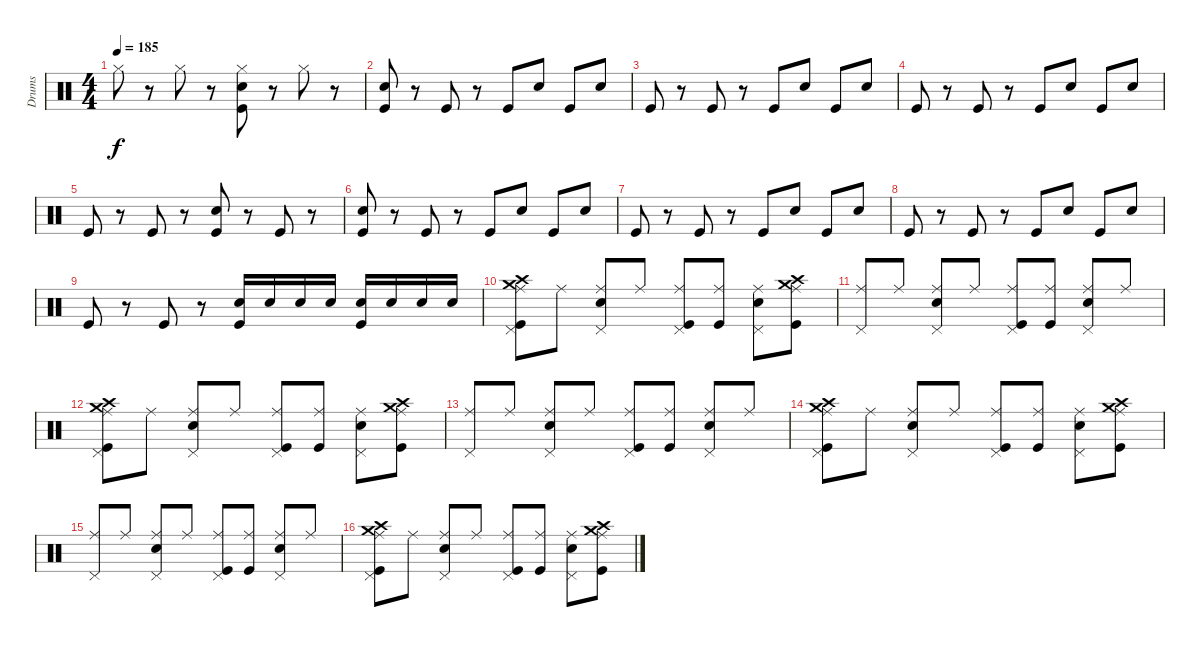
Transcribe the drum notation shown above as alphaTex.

\track ("Drums" "Drums") {instrument percussion}
\staff {score}
\articulation defaults
\ts (4 4)
\tempo 185
\clef neutral
\ks c "Hi-Hat (closed)".8{dy f}
r.8 "Hi-Hat (closed)".8 r.8 ("Kick (hit)" "Hi-Hat (closed)" "Electric Snare (hit)").8 r.8 "Hi-Hat (closed)".8 r.8 |
("Kick (hit)" "Electric Snare (hit)").8 r.8 "Kick (hit)".8 r.8 "Kick (hit)".8 "Electric Snare (hit)".8 "Kick (hit)".8 "Electric Snare (hit)".8 |
"Kick (hit)".8 r.8 "Kick (hit)".8 r.8 "Kick (hit)".8 "Electric Snare (hit)".8 "Kick (hit)".8 "Electric Snare (hit)".8 |
"Kick (hit)".8 r.8 "Kick (hit)".8 r.8 "Kick (hit)".8 "Electric Snare (hit)".8 "Kick (hit)".8 "Electric Snare (hit)".8 |
"Kick (hit)".8 r.8 "Kick (hit)".8 r.8 ("Electric Snare (hit)" "Kick (hit)").8 r.8 "Kick (hit)".8 r.8 |
("Electric Snare (hit)" "Kick (hit)").8 r.8 "Kick (hit)".8 r.8 "Kick (hit)".8 "Electric Snare (hit)".8 "Kick (hit)".8 "Electric Snare (hit)".8 |
"Kick (hit)".8 r.8 "Kick (hit)".8 r.8 "Kick (hit)".8 "Electric Snare (hit)".8 "Kick (hit)".8 "Electric Snare (hit)".8 |
"Kick (hit)".8 r.8 "Kick (hit)".8 r.8 "Kick (hit)".8 "Electric Snare (hit)".8 "Kick (hit)".8 "Electric Snare (hit)".8 |
"Kick (hit)".8 r.8 "Kick (hit)".8 r.8 ("Electric Snare (hit)" "Kick (hit)").16 "Electric Snare (hit)".16 "Electric Snare (hit)".16 "Electric Snare (hit)".16 ("Kick (hit)" "Electric Snare (hit)").16 "Electric Snare (hit)".16 "Electric Snare (hit)".16 "Electric Snare (hit)".16 |
("Ride (middle)" "Pedal Hi-Hat (hit)" "Crash medium (hit)" "Crash high (hit)" "Kick (hit)").8 "Ride (middle)".8 ("Ride (middle)" "Pedal Hi-Hat (hit)" "Electric Snare (hit)").8 "Ride (middle)".8 ("Ride (middle)" "Pedal Hi-Hat (hit)" "Kick (hit)").8 ("Kick (hit)" "Ride (middle)").8 ("Ride (middle)" "Pedal Hi-Hat (hit)" "Electric Snare (hit)").8 ("Kick (hit)" "Crash high (hit)" "Crash medium (hit)" "Ride (middle)").8 |
("Ride (middle)" "Pedal Hi-Hat (hit)").8 "Ride (middle)".8 ("Ride (middle)" "Pedal Hi-Hat (hit)" "Electric Snare (hit)").8 "Ride (middle)".8 ("Kick (hit)" "Ride (middle)" "Pedal Hi-Hat (hit)").8 ("Kick (hit)" "Ride (middle)").8 ("Ride (middle)" "Pedal Hi-Hat (hit)" "Electric Snare (hit)").8 "Ride (middle)".8 |
("Kick (hit)" "Pedal Hi-Hat (hit)" "Ride (middle)" "Crash high (hit)" "Crash medium (hit)").8 "Ride (middle)".8 ("Electric Snare (hit)" "Pedal Hi-Hat (hit)" "Ride (middle)").8 "Ride (middle)".8 ("Kick (hit)" "Pedal Hi-Hat (hit)" "Ride (middle)").8 ("Kick (hit)" "Ride (middle)").8 ("Electric Snare (hit)" "Pedal Hi-Hat (hit)" "Ride (middle)").8 ("Crash medium (hit)" "Crash high (hit)" "Kick (hit)" "Ride (middle)").8 |
("Ride (middle)" "Pedal Hi-Hat (hit)").8 "Ride (middle)".8 ("Ride (middle)" "Pedal Hi-Hat (hit)" "Electric Snare (hit)").8 "Ride (middle)".8 ("Kick (hit)" "Ride (middle)" "Pedal Hi-Hat (hit)").8 ("Kick (hit)" "Ride (middle)").8 ("Ride (middle)" "Pedal Hi-Hat (hit)" "Electric Snare (hit)").8 "Ride (middle)".8 |
("Ride (middle)" "Pedal Hi-Hat (hit)" "Crash medium (hit)" "Crash high (hit)" "Kick (hit)").8 "Ride (middle)".8 ("Ride (middle)" "Pedal Hi-Hat (hit)" "Electric Snare (hit)").8 "Ride (middle)".8 ("Ride (middle)" "Pedal Hi-Hat (hit)" "Kick (hit)").8 ("Kick (hit)" "Ride (middle)").8 ("Ride (middle)" "Pedal Hi-Hat (hit)" "Electric Snare (hit)").8 ("Kick (hit)" "Crash high (hit)" "Crash medium (hit)" "Ride (middle)").8 |
("Ride (middle)" "Pedal Hi-Hat (hit)").8 "Ride (middle)".8 ("Ride (middle)" "Pedal Hi-Hat (hit)" "Electric Snare (hit)").8 "Ride (middle)".8 ("Kick (hit)" "Ride (middle)" "Pedal Hi-Hat (hit)").8 ("Kick (hit)" "Ride (middle)").8 ("Ride (middle)" "Pedal Hi-Hat (hit)" "Electric Snare (hit)").8 "Ride (middle)".8 |
("Kick (hit)" "Pedal Hi-Hat (hit)" "Ride (middle)" "Crash high (hit)" "Crash medium (hit)").8 "Ride (middle)".8 ("Electric Snare (hit)" "Pedal Hi-Hat (hit)" "Ride (middle)").8 "Ride (middle)".8 ("Kick (hit)" "Pedal Hi-Hat (hit)" "Ride (middle)").8 ("Kick (hit)" "Ride (middle)").8 ("Electric Snare (hit)" "Pedal Hi-Hat (hit)" "Ride (middle)").8 ("Crash medium (hit)" "Crash high (hit)" "Kick (hit)" "Ride (middle)").8
